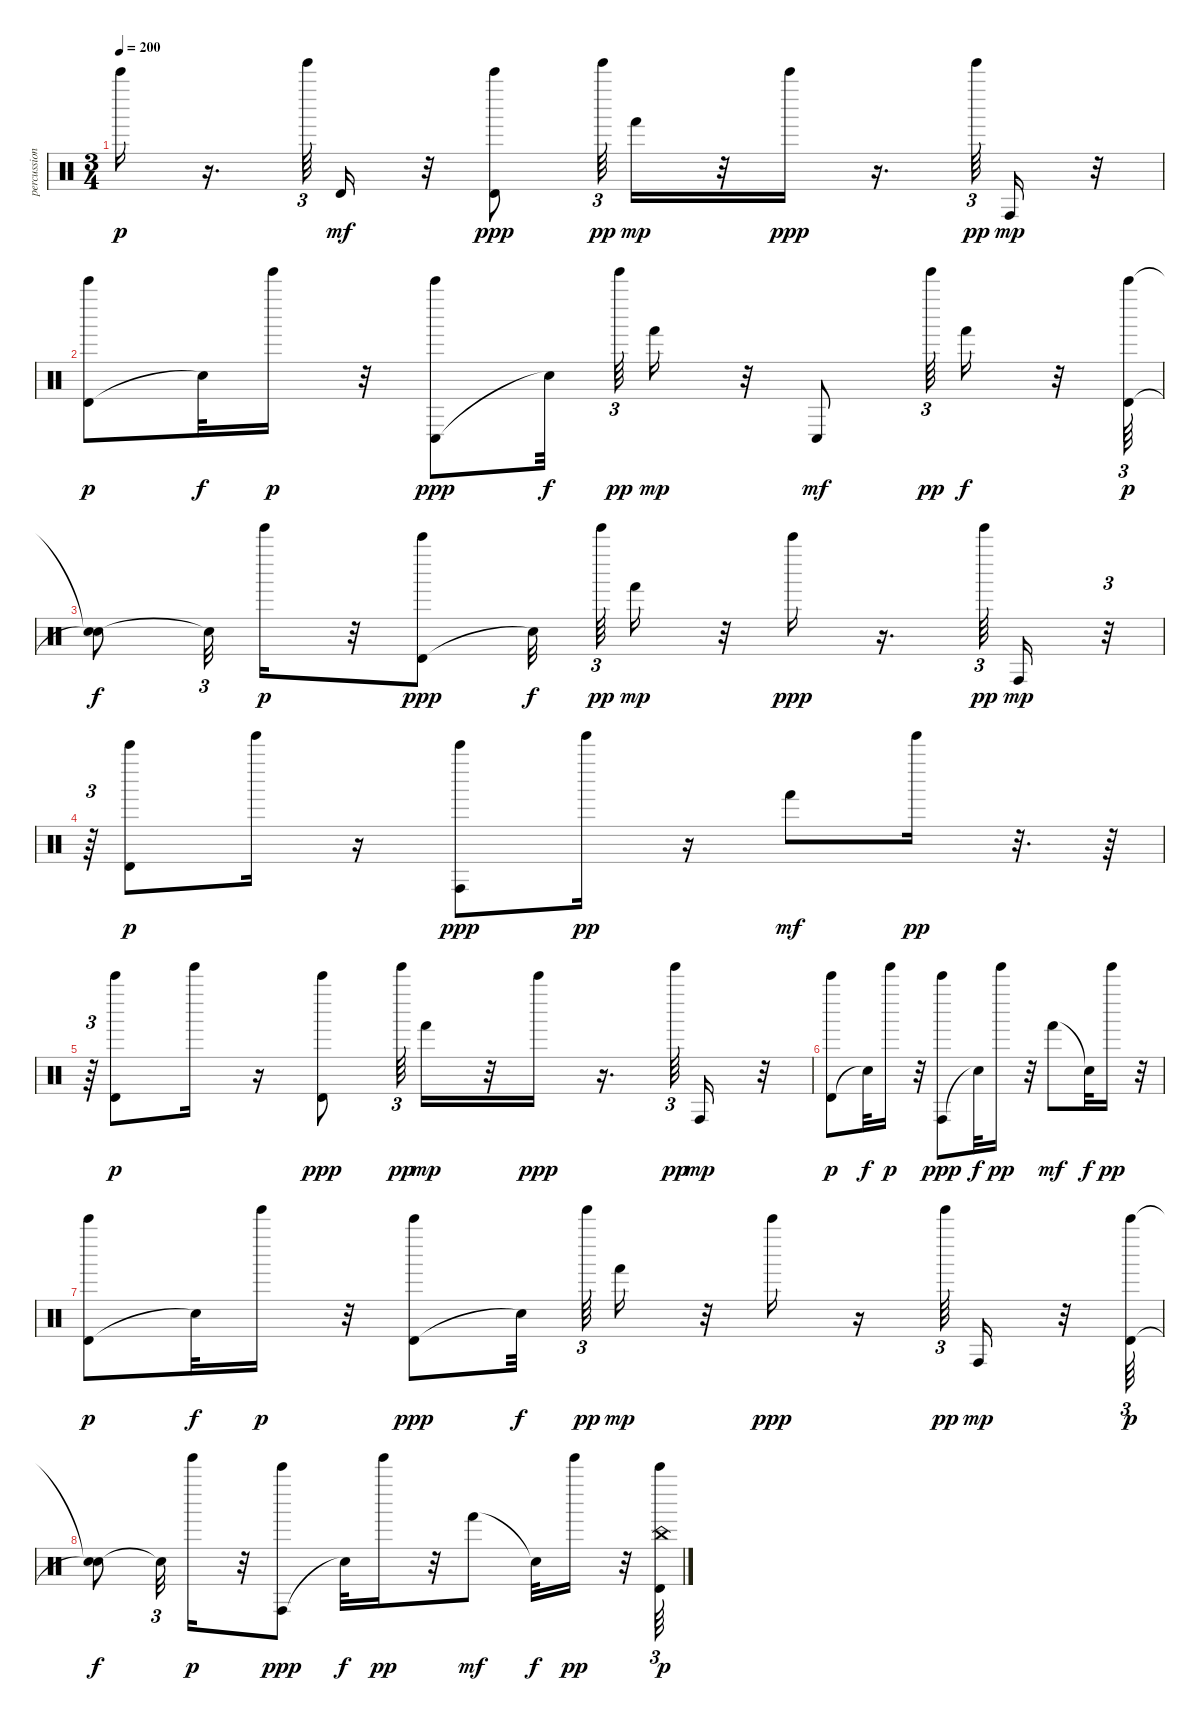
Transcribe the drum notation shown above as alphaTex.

\track ("percussion" "percussion") {instrument percussion}
\staff {score}
\articulation defaults
\ts (3 4)
\tempo 200
\clef neutral
\ks c "Bell Tree (hit)".16{dy p}
r.16{d} "Tinkle Bell (hit)".64{tu (3 2)} "Timbale high (hit)".16{dy mf} r.32 ("Timbale high (hit)" "Bell Tree (hit)").8{dy ppp} "Tinkle Bell (hit)".64{tu (3 2) dy pp} "Hand (hit)".16{dy mp} r.32 "Bell Tree (hit)".16{dy ppp} r.16{d} "Tinkle Bell (hit)".64{tu (3 2) dy pp} "Conga high (hit)".16{dy mp} r.32 |
("Timbale high (hit)" "Bell Tree (hit)").8{dy p} "Snare (hit)"{t}.32{dy f} "Tinkle Bell (hit)".16{dy p} r.32 ("Conga low (hit)" "Bell Tree (hit)").8{dy ppp} "Snare (hit)"{t}.32{dy f} "Tinkle Bell (hit)".64{tu (3 2) dy pp} "Hand (hit)".16{dy mp} r.32 "Conga low (hit)".8{dy mf} "Tinkle Bell (hit)".64{tu (3 2) dy pp} "Hand (hit)".16{dy f} r.32 ("Timbale high (hit)" "Bell Tree (hit)").64{tu (3 2) dy p} |
("Snare (hit)"{t} "Snare (hit)"{t}).8{dy f} "Snare (hit)"{t}.32{tu (3 2)} "Tinkle Bell (hit)".16{dy p} r.32 ("Timbale high (hit)" "Bell Tree (hit)").8{dy ppp} "Snare (hit)"{t}.32{dy f} "Tinkle Bell (hit)".64{tu (3 2) dy pp} "Hand (hit)".16{dy mp} r.32 "Bell Tree (hit)".16{dy ppp} r.16{d} "Tinkle Bell (hit)".64{tu (3 2) dy pp} "Conga high (hit)".16{dy mp} r.32{tu (3 2)} |
r.64{tu (3 2)} ("Timbale high (hit)" "Bell Tree (hit)").8{dy p} "Tinkle Bell (hit)".16 r.16 ("Conga high (hit)" "Bell Tree (hit)").8{dy ppp} "Tinkle Bell (hit)".16{dy pp} r.16 "Hand (hit)".8{dy mf} "Tinkle Bell (hit)".16{dy pp} r.32{d} r.64 |
r.64{tu (3 2)} ("Timbale high (hit)" "Bell Tree (hit)").8{dy p} "Tinkle Bell (hit)".16 r.16 ("Timbale high (hit)" "Bell Tree (hit)").8{dy ppp} "Tinkle Bell (hit)".64{tu (3 2) dy pp} "Hand (hit)".16{dy mp} r.32 "Bell Tree (hit)".16{dy ppp} r.16{d} "Tinkle Bell (hit)".64{tu (3 2) dy pp} "Conga high (hit)".16{dy mp} r.32 |
("Timbale high (hit)" "Bell Tree (hit)").8{dy p} "Snare (hit)"{t}.32{dy f} "Tinkle Bell (hit)".16{dy p} r.32 ("Conga high (hit)" "Bell Tree (hit)").8{dy ppp} "Snare (hit)"{t}.32{dy f} "Tinkle Bell (hit)".16{dy pp} r.32 "Hand (hit)".8{dy mf} "Snare (hit)"{t}.32{dy f} "Tinkle Bell (hit)".16{dy pp} r.32 |
("Timbale high (hit)" "Bell Tree (hit)").8{dy p} "Snare (hit)"{t}.32{dy f} "Tinkle Bell (hit)".16{dy p} r.32 ("Timbale high (hit)" "Bell Tree (hit)").8{dy ppp} "Snare (hit)"{t}.32{dy f} "Tinkle Bell (hit)".64{tu (3 2) dy pp} "Hand (hit)".16{dy mp} r.32 "Bell Tree (hit)".16{dy ppp} r.16 "Tinkle Bell (hit)".64{tu (3 2) dy pp} "Conga high (hit)".16{dy mp} r.32 ("Timbale high (hit)" "Bell Tree (hit)").64{tu (3 2) dy p} |
("Snare (hit)"{t} "Snare (hit)"{t}).8{dy f} "Snare (hit)"{t}.32{tu (3 2)} "Tinkle Bell (hit)".16{dy p} r.32 ("Conga high (hit)" "Bell Tree (hit)").8{dy ppp} "Snare (hit)"{t}.32{dy f} "Tinkle Bell (hit)".16{dy pp} r.32 "Hand (hit)".8{dy mf} "Snare (hit)"{t}.32{dy f} "Tinkle Bell (hit)".16{dy pp} r.32 ("China (hit)" "Timbale high (hit)" "Bell Tree (hit)").64{tu (3 2) dy p}
